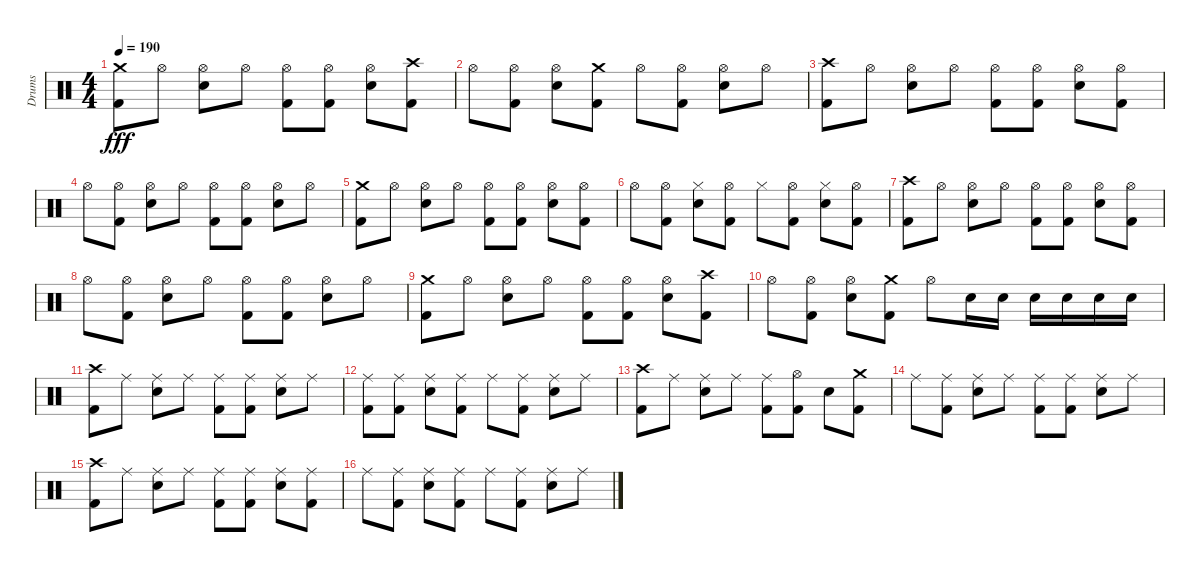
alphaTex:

\track ("Drums" "Drums") {instrument percussion}
\staff {score}
\articulation defaults
\ts (4 4)
\tempo 190
\clef neutral
\ks c
("Crash medium (hit)" "Kick (hit) 2").8{dy fff} "Hi-Hat (open)".8 ("Hi-Hat (open)" "Electric Snare (hit)").8 "Hi-Hat (open)".8 ("Hi-Hat (open)" "Kick (hit) 2").8 ("Hi-Hat (open)" "Kick (hit) 2").8 ("Hi-Hat (open)" "Electric Snare (hit)").8 ("Crash high (hit)" "Kick (hit) 2").8 |
"Hi-Hat (open)".8 ("Hi-Hat (open)" "Kick (hit) 2").8 ("Hi-Hat (open)" "Electric Snare (hit)").8 ("Crash medium (hit)" "Kick (hit) 2").8 "Hi-Hat (open)".8 ("Hi-Hat (open)" "Kick (hit) 2").8 ("Hi-Hat (open)" "Electric Snare (hit)").8 "Hi-Hat (open)".8 |
("Crash high (hit)" "Kick (hit) 2").8 "Hi-Hat (open)".8 ("Hi-Hat (open)" "Electric Snare (hit)").8 "Hi-Hat (open)".8 ("Hi-Hat (open)" "Kick (hit) 2").8 ("Hi-Hat (open)" "Kick (hit) 2").8 ("Hi-Hat (open)" "Electric Snare (hit)").8 ("Hi-Hat (open)" "Kick (hit) 2").8 |
"Hi-Hat (open)".8 ("Hi-Hat (open)" "Kick (hit) 2").8 ("Hi-Hat (open)" "Electric Snare (hit)").8 "Hi-Hat (open)".8 ("Hi-Hat (open)" "Kick (hit) 2").8 ("Hi-Hat (open)" "Kick (hit) 2").8 ("Hi-Hat (open)" "Electric Snare (hit)").8 "Hi-Hat (open)".8 |
("Crash medium (hit)" "Kick (hit) 2").8 "Hi-Hat (open)".8 ("Hi-Hat (open)" "Electric Snare (hit)").8 "Hi-Hat (open)".8 ("Hi-Hat (open)" "Kick (hit) 2").8 ("Hi-Hat (open)" "Kick (hit) 2").8 ("Hi-Hat (open)" "Electric Snare (hit)").8 ("Hi-Hat (open)" "Kick (hit) 2").8 |
"Hi-Hat (open)".8 ("Hi-Hat (open)" "Kick (hit) 2").8 ("Hi-Hat (closed)" "Electric Snare (hit)").8 ("Hi-Hat (open)" "Kick (hit) 2").8 "Hi-Hat (closed)".8 ("Hi-Hat (open)" "Kick (hit) 2").8 ("Hi-Hat (closed)" "Electric Snare (hit)").8 ("Hi-Hat (open)" "Kick (hit) 2").8 |
("Crash high (hit)" "Kick (hit) 2").8 "Hi-Hat (open)".8 ("Hi-Hat (open)" "Electric Snare (hit)").8 "Hi-Hat (open)".8 ("Hi-Hat (open)" "Kick (hit) 2").8 ("Hi-Hat (open)" "Kick (hit) 2").8 ("Hi-Hat (open)" "Electric Snare (hit)").8 ("Hi-Hat (open)" "Kick (hit) 2").8 |
"Hi-Hat (open)".8 ("Hi-Hat (open)" "Kick (hit) 2").8 ("Hi-Hat (open)" "Electric Snare (hit)").8 "Hi-Hat (open)".8 ("Hi-Hat (open)" "Kick (hit) 2").8 ("Hi-Hat (open)" "Kick (hit) 2").8 ("Hi-Hat (open)" "Electric Snare (hit)").8 "Hi-Hat (open)".8 |
("Crash medium (hit)" "Kick (hit) 2").8 "Hi-Hat (open)".8 ("Hi-Hat (open)" "Electric Snare (hit)").8 "Hi-Hat (open)".8 ("Hi-Hat (open)" "Kick (hit) 2").8 ("Hi-Hat (open)" "Kick (hit) 2").8 ("Hi-Hat (open)" "Electric Snare (hit)").8 ("Crash high (hit)" "Kick (hit) 2").8 |
"Hi-Hat (open)".8 ("Hi-Hat (open)" "Kick (hit) 2").8 ("Hi-Hat (open)" "Electric Snare (hit)").8 ("Crash medium (hit)" "Kick (hit) 2").8 "Hi-Hat (open)".8 "Electric Snare (hit)".16 "Electric Snare (hit)".16 "Electric Snare (hit)".16 "Electric Snare (hit)".16 "Electric Snare (hit)".16 "Electric Snare (hit)".16 |
("Crash high (hit)" "Kick (hit) 2").8 "Ride (middle)".8 ("Ride (middle)" "Electric Snare (hit)").8 "Ride (middle)".8 ("Ride (middle)" "Kick (hit) 2").8 ("Ride (middle)" "Kick (hit) 2").8 ("Ride (middle)" "Electric Snare (hit)").8 "Ride (middle)".8 |
("Ride (middle)" "Kick (hit) 2").8 ("Ride (middle)" "Kick (hit) 2").8 ("Ride (middle)" "Electric Snare (hit)").8 ("Ride (middle)" "Kick (hit) 2").8 "Ride (middle)".8 ("Ride (middle)" "Kick (hit) 2").8 ("Ride (middle)" "Electric Snare (hit)").8 "Ride (middle)".8 |
("Crash high (hit)" "Kick (hit) 2").8 "Ride (middle)".8 ("Ride (middle)" "Electric Snare (hit)").8 "Ride (middle)".8 ("Ride (middle)" "Kick (hit) 2").8 ("Hi-Hat (open)" "Kick (hit) 2").8 "Electric Snare (hit)".8 ("Crash medium (hit)" "Kick (hit) 2").8 |
"Ride (middle)".8 ("Ride (middle)" "Kick (hit) 2").8 ("Ride (middle)" "Electric Snare (hit)").8 "Ride (middle)".8 ("Ride (middle)" "Kick (hit) 2").8 ("Ride (middle)" "Kick (hit) 2").8 ("Ride (middle)" "Electric Snare (hit)").8 "Ride (middle)".8 |
("Crash high (hit)" "Kick (hit) 2").8 "Ride (middle)".8 ("Ride (middle)" "Electric Snare (hit)").8 "Ride (middle)".8 ("Ride (middle)" "Kick (hit) 2").8 ("Ride (middle)" "Kick (hit) 2").8 ("Ride (middle)" "Electric Snare (hit)").8 ("Ride (middle)" "Kick (hit) 2").8 |
"Ride (middle)".8 ("Ride (middle)" "Kick (hit) 2").8 ("Ride (middle)" "Electric Snare (hit)").8 ("Ride (middle)" "Kick (hit) 2").8 "Ride (middle)".8 ("Ride (middle)" "Kick (hit) 2").8 ("Ride (middle)" "Electric Snare (hit)").8 "Ride (middle)".8
